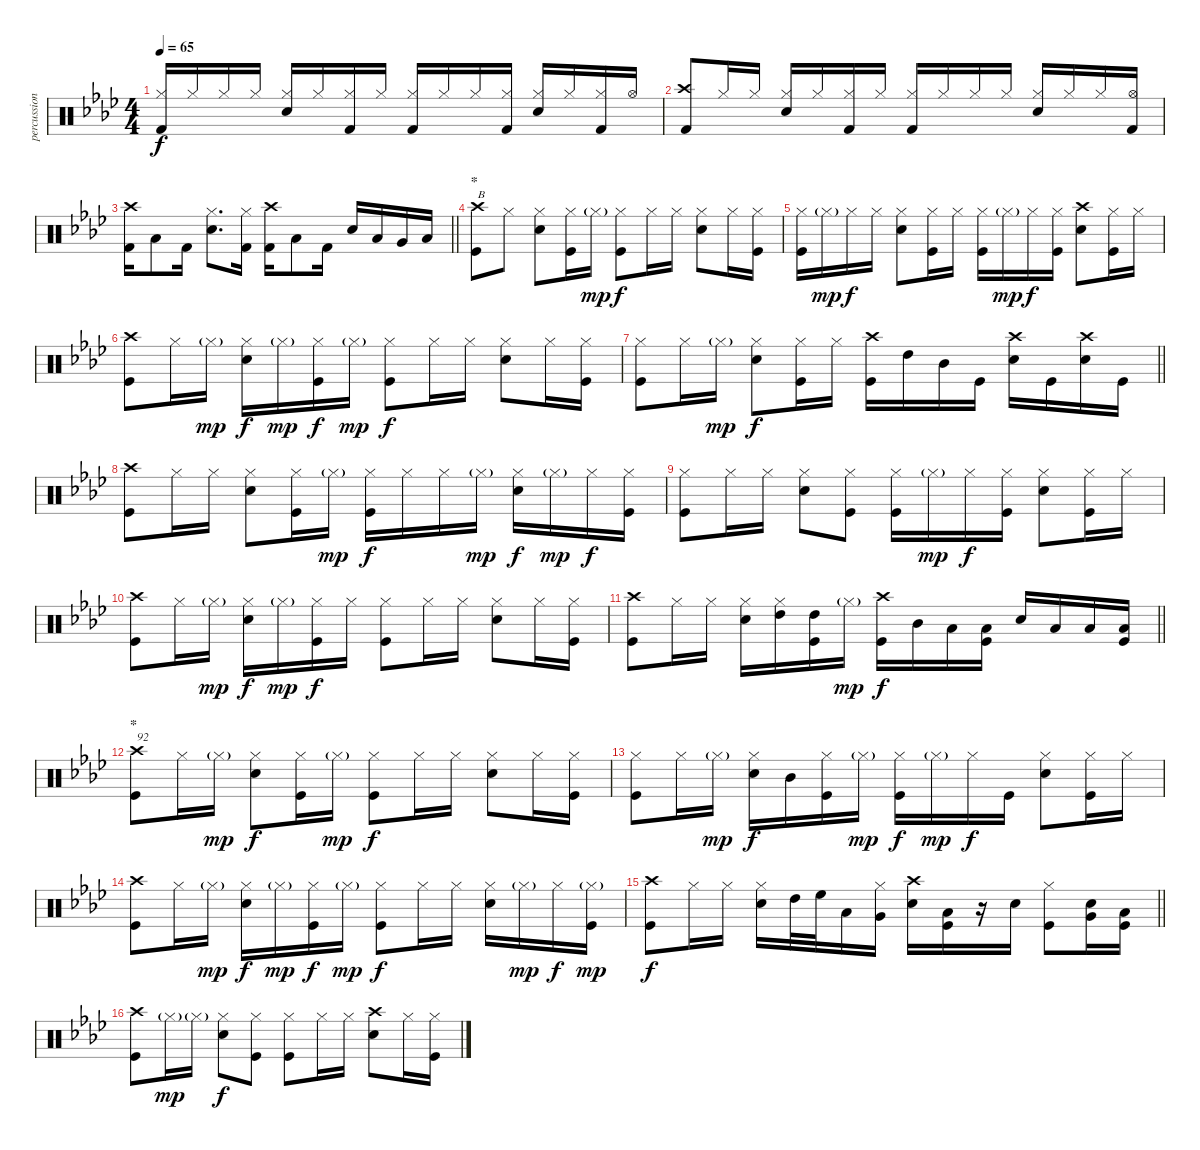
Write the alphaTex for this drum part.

\track ("percussion" "percussion") {instrument percussion}
\staff {score}
\articulation defaults
\ts (4 4)
\tempo 65
\clef neutral
\ks ab
("Hi-Hat (closed)" "Kick (hit) 2").16{dy f beam Up} "Hi-Hat (closed)".16{beam Up} "Hi-Hat (closed)".16{beam Up} "Hi-Hat (closed)".16{beam Up} ("Snare (hit) 2" "Hi-Hat (closed)").16{beam Up} "Hi-Hat (closed)".16{beam Up} ("Hi-Hat (closed)" "Kick (hit) 2").16{beam Up} "Hi-Hat (closed)".16{beam Up} ("Hi-Hat (closed)" "Kick (hit) 2").16{beam Up} "Hi-Hat (closed)".16{beam Up} "Hi-Hat (closed)".16{beam Up} ("Hi-Hat (closed)" "Kick (hit) 2").16{beam Up} ("Snare (hit) 2" "Hi-Hat (closed)").16{beam Up} "Hi-Hat (closed)".16{beam Up} ("Hi-Hat (closed)" "Kick (hit) 2").16{beam Up} "Hi-Hat (open)".16{beam Up} |
("Crash high (hit)" "Kick (hit) 2").8{beam Up} "Hi-Hat (closed)".16{beam Up} "Hi-Hat (closed)".16{beam Up} ("Snare (hit) 2" "Hi-Hat (closed)").16{beam Up} "Hi-Hat (closed)".16{beam Up} ("Hi-Hat (closed)" "Kick (hit) 2").16{beam Up} "Hi-Hat (closed)".16{beam Up} ("Hi-Hat (closed)" "Kick (hit) 2").16{beam Up} "Hi-Hat (closed)".16{beam Up} "Hi-Hat (closed)".16{beam Up} "Hi-Hat (closed)".16{beam Up} ("Snare (hit) 2" "Hi-Hat (closed)").16{beam Up} "Hi-Hat (closed)".16{beam Up} "Hi-Hat (closed)".16{beam Up} ("Hi-Hat (open)" "Kick (hit) 2").16{beam Up} |
\barLineRight lightlight
("Crash high (hit)" "Kick (hit) 2").16 "Low Tom (hit)".8 "Kick (hit) 2".16 ("Snare (hit) 2" "Hi-Hat (closed)").8{d} ("Hi-Hat (closed)" "Kick (hit) 2").16 ("Crash high (hit)" "Kick (hit) 2").16 "Low Floor Tom (hit)".8 "Kick (hit) 2".16 "Snare (hit) 2".16 "Low Tom (hit)".16 "Very Low Tom (hit)".16 "Low Floor Tom (hit)".16 |
\section ("" "*")
("Crash high (hit)" "Kick (hit)").8{txt "B"} "Hi-Hat (closed)".8 ("Snare (hit) 2" "Hi-Hat (closed)").8 ("Hi-Hat (closed)" "Kick (hit)").16 "Hi-Hat (closed)"{g}.16{dy mp} ("Hi-Hat (closed)" "Kick (hit)").8{dy f} "Hi-Hat (closed)".16 "Hi-Hat (closed)".16 ("Snare (hit) 2" "Hi-Hat (closed)").8 "Hi-Hat (closed)".16 ("Hi-Hat (closed)" "Kick (hit)").16 |
("Hi-Hat (closed)" "Kick (hit)").16 "Hi-Hat (closed)"{g}.16{dy mp} "Hi-Hat (closed)".16{dy f} "Hi-Hat (closed)".16 ("Snare (hit) 2" "Hi-Hat (closed)").8 ("Hi-Hat (closed)" "Kick (hit)").16 "Hi-Hat (closed)".16 ("Hi-Hat (closed)" "Kick (hit)").16 "Hi-Hat (closed)"{g}.16{dy mp} "Hi-Hat (closed)".16{dy f} ("Hi-Hat (closed)" "Kick (hit)").16 ("Crash high (hit)" "Snare (hit) 2").8 ("Hi-Hat (closed)" "Kick (hit)").16 "Hi-Hat (closed)".16 |
("Crash high (hit)" "Kick (hit)").8 "Hi-Hat (closed)".16 "Hi-Hat (closed)"{g}.16{dy mp} ("Snare (hit) 2" "Hi-Hat (closed)").16{dy f} "Hi-Hat (closed)"{g}.16{dy mp} ("Hi-Hat (closed)" "Kick (hit)").16{dy f} "Hi-Hat (closed)"{g}.16{dy mp} ("Hi-Hat (closed)" "Kick (hit)").8{dy f} "Hi-Hat (closed)".16 "Hi-Hat (closed)".16 ("Snare (hit) 2" "Hi-Hat (closed)").8 "Hi-Hat (closed)".16 ("Hi-Hat (closed)" "Kick (hit)").16 |
\barLineRight lightlight
("Hi-Hat (closed)" "Kick (hit)").8 "Hi-Hat (closed)".16 "Hi-Hat (closed)"{g}.16{dy mp} ("Snare (hit) 2" "Hi-Hat (closed)").8{dy f} ("Hi-Hat (closed)" "Kick (hit)").16 "Hi-Hat (closed)".16 ("Crash high (hit)" "Kick (hit)").16 "High Tom (hit)".16 "Mid Tom (hit)".16 "Kick (hit)".16 ("Crash high (hit)" "Snare (hit) 2").16 "Kick (hit)".16 ("Crash high (hit)" "Snare (hit) 2").16 "Kick (hit)".16 |
("Crash high (hit)" "Kick (hit)").8 "Hi-Hat (closed)".16 "Hi-Hat (closed)".16 ("Snare (hit) 2" "Hi-Hat (closed)").8 ("Hi-Hat (closed)" "Kick (hit)").16 "Hi-Hat (closed)"{g}.16{dy mp} ("Hi-Hat (closed)" "Kick (hit)").16{dy f} "Hi-Hat (closed)".16 "Hi-Hat (closed)".16 "Hi-Hat (closed)"{g}.16{dy mp} ("Snare (hit) 2" "Hi-Hat (closed)").16{dy f} "Hi-Hat (closed)"{g}.16{dy mp} "Hi-Hat (closed)".16{dy f} ("Hi-Hat (closed)" "Kick (hit)").16 |
("Hi-Hat (closed)" "Kick (hit)").8 "Hi-Hat (closed)".16 "Hi-Hat (closed)".16 ("Snare (hit) 2" "Hi-Hat (closed)").8 ("Hi-Hat (closed)" "Kick (hit)").8 ("Hi-Hat (closed)" "Kick (hit)").16 "Hi-Hat (closed)"{g}.16{dy mp} "Hi-Hat (closed)".16{dy f} ("Hi-Hat (closed)" "Kick (hit)").16 ("Snare (hit) 2" "Hi-Hat (closed)").8 ("Hi-Hat (closed)" "Kick (hit)").16 "Hi-Hat (closed)".16 |
("Crash high (hit)" "Kick (hit)").8 "Hi-Hat (closed)".16 "Hi-Hat (closed)"{g}.16{dy mp} ("Snare (hit) 2" "Hi-Hat (closed)").16{dy f} "Hi-Hat (closed)"{g}.16{dy mp} ("Hi-Hat (closed)" "Kick (hit)").16{dy f} "Hi-Hat (closed)".16 ("Hi-Hat (closed)" "Kick (hit)").8 "Hi-Hat (closed)".16 "Hi-Hat (closed)".16 ("Snare (hit) 2" "Hi-Hat (closed)").8 "Hi-Hat (closed)".16 ("Hi-Hat (closed)" "Kick (hit)").16 |
\barLineRight lightlight
("Crash high (hit)" "Kick (hit)").8 "Hi-Hat (closed)".16 "Hi-Hat (closed)".16 ("Snare (hit) 2" "Hi-Hat (closed)").16 ("High Tom (hit)" "Hi-Hat (closed)").16 ("High Tom (hit)" "Kick (hit)").16 "Hi-Hat (closed)"{g}.16{dy mp} ("Crash high (hit)" "Kick (hit)").16{dy f} "Mid Tom (hit)".16 "Low Tom (hit)".16 ("Low Tom (hit)" "Kick (hit)").16 "Snare (hit) 2".16 "Low Tom (hit)".16 "Low Tom (hit)".16 ("Low Tom (hit)" "Kick (hit)").16 |
\section ("" "*")
("Crash high (hit)" "Kick (hit)").8{txt "92"} "Hi-Hat (closed)".16 "Hi-Hat (closed)"{g}.16{dy mp} ("Snare (hit) 2" "Hi-Hat (closed)").8{dy f} ("Hi-Hat (closed)" "Kick (hit)").16 "Hi-Hat (closed)"{g}.16{dy mp} ("Hi-Hat (closed)" "Kick (hit)").8{dy f} "Hi-Hat (closed)".16 "Hi-Hat (closed)".16 ("Snare (hit) 2" "Hi-Hat (closed)").8 "Hi-Hat (closed)".16 ("Hi-Hat (closed)" "Kick (hit)").16 |
("Hi-Hat (closed)" "Kick (hit)").8 "Hi-Hat (closed)".16 "Hi-Hat (closed)"{g}.16{dy mp} ("Snare (hit) 2" "Hi-Hat (closed)").16{dy f} "Mid Tom (hit)".16 ("Hi-Hat (closed)" "Kick (hit)").16 "Hi-Hat (closed)"{g}.16{dy mp} ("Hi-Hat (closed)" "Kick (hit)").16{dy f} "Hi-Hat (closed)"{g}.16{dy mp} "Hi-Hat (closed)".16{dy f} "Kick (hit)".16 ("Snare (hit) 2" "Hi-Hat (closed)").8 ("Hi-Hat (closed)" "Kick (hit)").16 "Hi-Hat (closed)".16 |
("Crash high (hit)" "Kick (hit)").8 "Hi-Hat (closed)".16 "Hi-Hat (closed)"{g}.16{dy mp} ("Snare (hit) 2" "Hi-Hat (closed)").16{dy f} "Hi-Hat (closed)"{g}.16{dy mp} ("Hi-Hat (closed)" "Kick (hit)").16{dy f} "Hi-Hat (closed)"{g}.16{dy mp} ("Hi-Hat (closed)" "Kick (hit)").8{dy f} "Hi-Hat (closed)".16 "Hi-Hat (closed)".16 ("Snare (hit) 2" "Hi-Hat (closed)").16 "Hi-Hat (closed)"{g}.16{dy mp} "Hi-Hat (closed)".16{dy f} ("Hi-Hat (closed)"{g} "Kick (hit)").16{dy mp} |
\barLineRight lightlight
("Crash high (hit)" "Kick (hit)").8{dy f} "Hi-Hat (closed)".16 "Hi-Hat (closed)".16 ("Snare (hit) 2" "Hi-Hat (closed)").16 "High Tom (hit)".32 "High Floor Tom (hit)".32 "Low Tom (hit)".16 ("Very Low Tom (hit)" "Hi-Hat (closed)").16 ("Crash high (hit)" "Snare (hit) 2").16 ("Low Tom (hit)" "Kick (hit)").16 r.16 "Snare (hit) 2".16 ("Hi-Hat (closed)" "Kick (hit)").8 ("Very Low Tom (hit)" "Snare (hit) 2").16 ("Low Floor Tom (hit)" "Kick (hit)").16 |
("Crash high (hit)" "Kick (hit)").8 "Hi-Hat (closed)"{g}.16{dy mp} "Hi-Hat (closed)"{g}.16 ("Snare (hit) 2" "Hi-Hat (closed)").8{dy f} ("Hi-Hat (closed)" "Kick (hit)").8 ("Hi-Hat (closed)" "Kick (hit)").8 "Hi-Hat (closed)".16 "Hi-Hat (closed)".16 ("Crash high (hit)" "Snare (hit) 2").8 "Hi-Hat (closed)".16 ("Hi-Hat (closed)" "Kick (hit)").16
